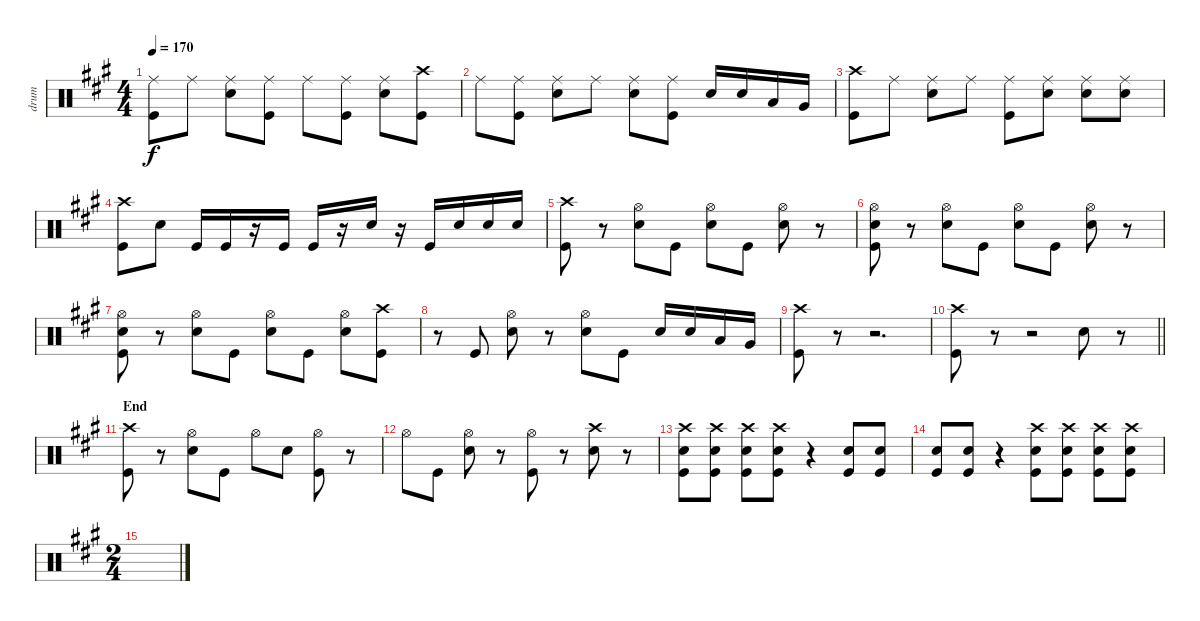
\track ("drum" "drum") {instrument percussion}
\staff {score}
\articulation defaults
\ts (4 4)
\tempo 170
\clef neutral
\ks a
("Ride (middle)" "Kick (hit)").8{dy f} "Ride (middle)".8 ("Ride (middle)" "Snare (hit) 2").8 ("Ride (middle)" "Kick (hit)").8 "Ride (middle)".8 ("Ride (middle)" "Kick (hit)").8 ("Ride (middle)" "Snare (hit) 2").8 ("Crash high (hit)" "Kick (hit)").8 |
"Ride (middle)".8 ("Ride (middle)" "Kick (hit)").8 ("Ride (middle)" "Snare (hit) 2").8 "Ride (middle)".8 ("Ride (middle)" "Snare (hit) 2").8 ("Ride (middle)" "Kick (hit)").8 "Snare (hit) 2".16 "Snare (hit) 2".16 "Low Tom (hit)".16 "Very Low Tom (hit)".16 |
("Crash high (hit)" "Kick (hit)").8 "Ride (middle)".8 ("Ride (middle)" "Snare (hit) 2").8 "Ride (middle)".8 ("Ride (middle)" "Kick (hit)").8 ("Ride (middle)" "Snare (hit) 2").8 ("Ride (middle)" "Snare (hit) 2").8 ("Ride (middle)" "Snare (hit) 2").8 |
("Crash high (hit)" "Kick (hit)").8 "Snare (hit) 2".8 "Kick (hit)".16 "Kick (hit)".16 r.16 "Kick (hit)".16 "Kick (hit)".16 r.16 "Snare (hit) 2".16 r.16 "Kick (hit)".16 "Snare (hit) 2".16 "Snare (hit) 2".16 "Snare (hit) 2".16 |
("Crash high (hit)" "Kick (hit)").8 r.8 ("Hi-Hat (open)" "Snare (hit) 2").8 "Kick (hit)".8 ("Hi-Hat (open)" "Snare (hit) 2").8 "Kick (hit)".8 ("Hi-Hat (open)" "Snare (hit) 2").8 r.8 |
("Hi-Hat (open)" "Snare (hit) 2" "Kick (hit)").8 r.8 ("Hi-Hat (open)" "Snare (hit) 2").8 "Kick (hit)".8 ("Hi-Hat (open)" "Snare (hit) 2").8 "Kick (hit)".8 ("Hi-Hat (open)" "Snare (hit) 2").8 r.8 |
("Hi-Hat (open)" "Snare (hit) 2" "Kick (hit)").8 r.8 ("Hi-Hat (open)" "Snare (hit) 2").8 "Kick (hit)".8 ("Hi-Hat (open)" "Snare (hit) 2").8 "Kick (hit)".8 ("Hi-Hat (open)" "Snare (hit) 2").8 ("Crash high (hit)" "Kick (hit)").8 |
r.8 "Kick (hit)".8 ("Hi-Hat (open)" "Snare (hit) 2").8 r.8 ("Hi-Hat (open)" "Snare (hit) 2").8 "Kick (hit)".8 "Snare (hit) 2".16 "Snare (hit) 2".16 "Low Tom (hit)".16 "Very Low Tom (hit)".16 |
("Crash high (hit)" "Kick (hit)").8 r.8 r.2{d} |
\barLineRight lightlight
("Crash high (hit)" "Kick (hit)").8 r.8 r.2 "Snare (hit) 2".8 r.8 |
\section ("" "End")
("Crash high (hit)" "Kick (hit)").8 r.8 ("Hi-Hat (open)" "Snare (hit) 2").8 "Kick (hit)".8 "Hi-Hat (open)".8 "Snare (hit) 2".8 ("Hi-Hat (open)" "Kick (hit)").8 r.8 |
"Hi-Hat (open)".8 "Kick (hit)".8 ("Hi-Hat (open)" "Snare (hit) 2").8 r.8 ("Hi-Hat (open)" "Kick (hit)").8 r.8 ("Crash high (hit)" "Snare (hit) 2").8 r.8 |
("Crash high (hit)" "Snare (hit) 2" "Kick (hit)").8 ("Crash high (hit)" "Snare (hit) 2" "Kick (hit)").8 ("Crash high (hit)" "Snare (hit) 2" "Kick (hit)").8 ("Crash high (hit)" "Snare (hit) 2" "Kick (hit)").8 r.4 ("Snare (hit) 2" "Kick (hit)").8 ("Snare (hit) 2" "Kick (hit)").8 |
("Snare (hit) 2" "Kick (hit)").8 ("Snare (hit) 2" "Kick (hit)").8 r.4 ("Crash high (hit)" "Snare (hit) 2" "Kick (hit)").8 ("Crash high (hit)" "Snare (hit) 2" "Kick (hit)").8 ("Crash high (hit)" "Snare (hit) 2" "Kick (hit)").8 ("Crash high (hit)" "Snare (hit) 2" "Kick (hit)").8 |
\ts (2 4)
